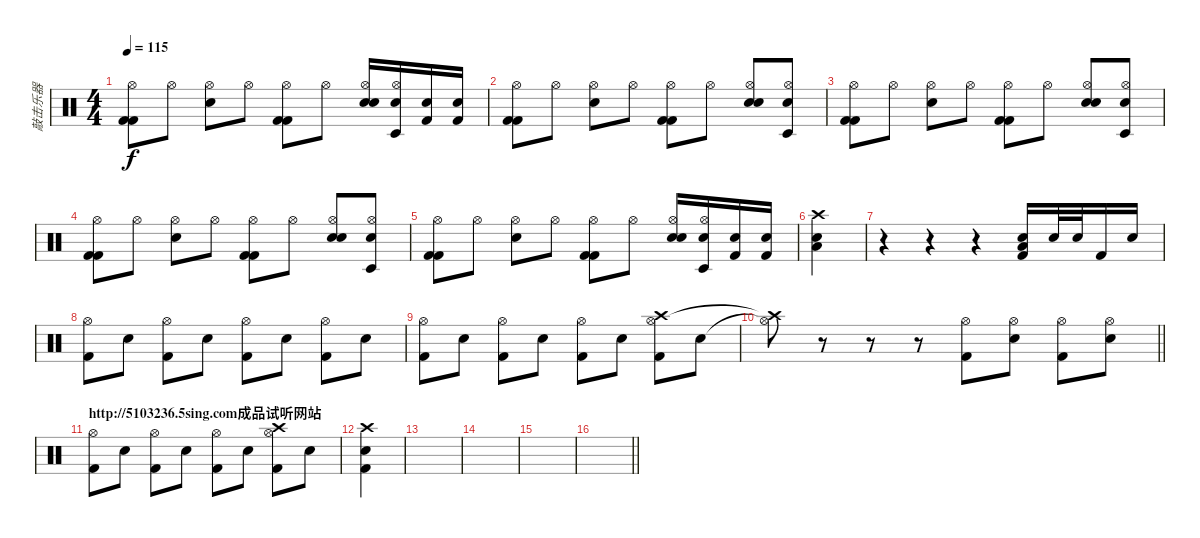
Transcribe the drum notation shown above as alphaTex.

\track ("敲击乐器" "敲击乐器") {instrument percussion}
\staff {score}
\articulation defaults
\ts (4 4)
\tempo 115
\clef neutral
\ks c
("Hi-Hat (open)" "Kick (hit) 2" "Kick (hit) 2").8{dy f} "Hi-Hat (open)".8 ("Hi-Hat (open)" "Snare (hit) 2").8 "Hi-Hat (open)".8 ("Hi-Hat (open)" "Kick (hit) 2" "Kick (hit) 2").8 "Hi-Hat (open)".8 ("Hi-Hat (open)" "Snare (hit) 2" "Electric Snare (hit)").16 ("Hi-Hat (open)" "Timbale low (hit)" "Snare (hit) 2").16 ("Kick (hit) 2" "Snare (hit) 2").16 ("Snare (hit) 2" "Kick (hit) 2").16 |
("Hi-Hat (open)" "Kick (hit) 2" "Kick (hit) 2").8 "Hi-Hat (open)".8 ("Hi-Hat (open)" "Snare (hit) 2").8 "Hi-Hat (open)".8 ("Hi-Hat (open)" "Kick (hit) 2" "Kick (hit) 2").8 "Hi-Hat (open)".8 ("Hi-Hat (open)" "Snare (hit) 2" "Electric Snare (hit)").8 ("Hi-Hat (open)" "Timbale low (hit)" "Snare (hit) 2").8 |
("Hi-Hat (open)" "Kick (hit) 2" "Kick (hit) 2").8 "Hi-Hat (open)".8 ("Hi-Hat (open)" "Snare (hit) 2").8 "Hi-Hat (open)".8 ("Hi-Hat (open)" "Kick (hit) 2" "Kick (hit) 2").8 "Hi-Hat (open)".8 ("Hi-Hat (open)" "Snare (hit) 2" "Electric Snare (hit)").8 ("Hi-Hat (open)" "Timbale low (hit)" "Snare (hit) 2").8 |
("Hi-Hat (open)" "Kick (hit) 2" "Kick (hit) 2").8 "Hi-Hat (open)".8 ("Hi-Hat (open)" "Snare (hit) 2").8 "Hi-Hat (open)".8 ("Hi-Hat (open)" "Kick (hit) 2" "Kick (hit) 2").8 "Hi-Hat (open)".8 ("Hi-Hat (open)" "Snare (hit) 2" "Electric Snare (hit)").8 ("Hi-Hat (open)" "Timbale low (hit)" "Snare (hit) 2").8 |
("Hi-Hat (open)" "Kick (hit) 2" "Kick (hit) 2").8 "Hi-Hat (open)".8 ("Hi-Hat (open)" "Snare (hit) 2").8 "Hi-Hat (open)".8 ("Hi-Hat (open)" "Kick (hit) 2" "Kick (hit) 2").8 "Hi-Hat (open)".8 ("Hi-Hat (open)" "Snare (hit) 2" "Electric Snare (hit)").16 ("Hi-Hat (open)" "Timbale low (hit)" "Snare (hit) 2").16 ("Kick (hit) 2" "Snare (hit) 2").16 ("Snare (hit) 2" "Kick (hit) 2").16 |
("Snare (hit) 2" "Crash high (hit)" "Low Floor Tom (hit)").4 |
r.4 r.4 r.4 ("Snare (hit) 2" "Low Floor Tom (hit)" "Kick (hit) 2").16 "Electric Snare (hit)".32 "Snare (hit) 2".32 "Kick (hit) 2".16 "Snare (hit) 2".16 |
("Kick (hit) 2" "Hi-Hat (open)").8 "Snare (hit) 2".8 ("Kick (hit) 2" "Hi-Hat (open)").8 "Snare (hit) 2".8 ("Kick (hit) 2" "Hi-Hat (open)").8 "Snare (hit) 2".8 ("Kick (hit) 2" "Hi-Hat (open)").8 "Snare (hit) 2".8 |
("Kick (hit) 2" "Hi-Hat (open)").8 "Snare (hit) 2".8 ("Kick (hit) 2" "Hi-Hat (open)").8 "Snare (hit) 2".8 ("Kick (hit) 2" "Hi-Hat (open)").8 "Snare (hit) 2".8 ("Kick (hit) 2" "Hi-Hat (open)" "Crash high (hit)").8 "Snare (hit) 2".8 |
\barLineRight lightlight
("Hi-Hat (open)"{t} "Crash high (hit)"{t}).8 r.8 r.8 r.8 ("Hi-Hat (open)" "Kick (hit) 2").8 ("Hi-Hat (open)" "Snare (hit) 2").8 ("Hi-Hat (open)" "Kick (hit) 2").8 ("Hi-Hat (open)" "Electric Snare (hit)").8 |
\section ("" "http://5103236.5sing.com成品试听网站")
("Kick (hit) 2" "Hi-Hat (open)").8 "Snare (hit) 2".8 ("Kick (hit) 2" "Hi-Hat (open)").8 "Snare (hit) 2".8 ("Kick (hit) 2" "Hi-Hat (open)").8 "Snare (hit) 2".8 ("Kick (hit) 2" "Hi-Hat (open)" "Crash high (hit)").8 "Snare (hit) 2".8 |
("Crash high (hit)" "Kick (hit) 2" "Snare (hit) 2").4 |
|
|
|
\barLineRight lightlight
